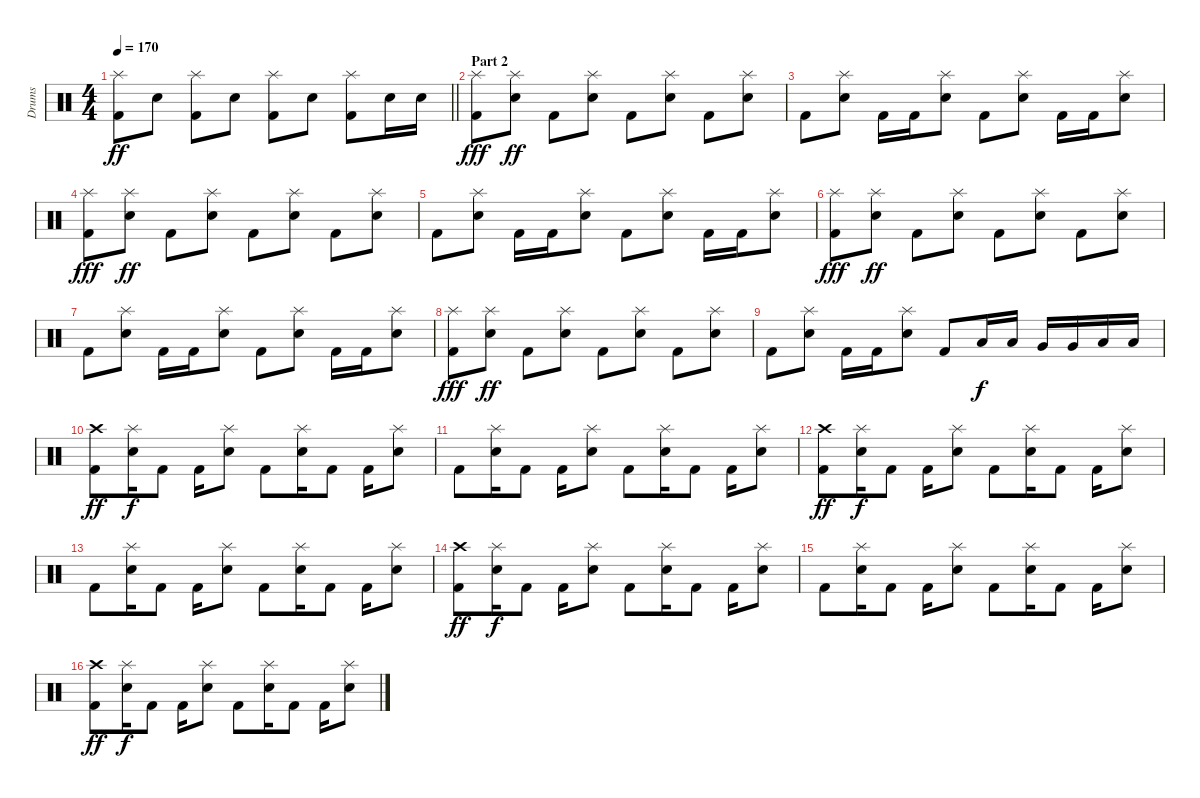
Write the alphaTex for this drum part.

\track ("Drums" "Drums") {instrument percussion}
\staff {score}
\articulation defaults
\ts (4 4)
\tempo 170
\clef neutral
\barLineRight lightlight
\ks c
("Kick (hit) 2" "Splash (hit)").8{dy ff} "Electric Snare (hit)".8 ("Kick (hit) 2" "Splash (hit)").8 "Electric Snare (hit)".8 ("Kick (hit) 2" "Splash (hit)").8 "Electric Snare (hit)".8 ("Kick (hit) 2" "Splash (hit)").8 "Electric Snare (hit)".16 "Electric Snare (hit)".16 |
\section ("" "Part 2")
("Kick (hit) 2" "Splash (hit)").8{dy fff} ("Electric Snare (hit)" "Splash (hit)").8{dy ff} "Kick (hit) 2".8 ("Electric Snare (hit)" "Splash (hit)").8 "Kick (hit) 2".8 ("Electric Snare (hit)" "Splash (hit)").8 "Kick (hit) 2".8 ("Electric Snare (hit)" "Splash (hit)").8 |
"Kick (hit) 2".8 ("Electric Snare (hit)" "Splash (hit)").8 "Kick (hit) 2".16 "Kick (hit) 2".16 ("Electric Snare (hit)" "Splash (hit)").8 "Kick (hit) 2".8 ("Electric Snare (hit)" "Splash (hit)").8 "Kick (hit) 2".16 "Kick (hit) 2".16 ("Electric Snare (hit)" "Splash (hit)").8 |
("Kick (hit) 2" "Splash (hit)").8{dy fff} ("Electric Snare (hit)" "Splash (hit)").8{dy ff} "Kick (hit) 2".8 ("Electric Snare (hit)" "Splash (hit)").8 "Kick (hit) 2".8 ("Electric Snare (hit)" "Splash (hit)").8 "Kick (hit) 2".8 ("Electric Snare (hit)" "Splash (hit)").8 |
"Kick (hit) 2".8 ("Electric Snare (hit)" "Splash (hit)").8 "Kick (hit) 2".16 "Kick (hit) 2".16 ("Electric Snare (hit)" "Splash (hit)").8 "Kick (hit) 2".8 ("Electric Snare (hit)" "Splash (hit)").8 "Kick (hit) 2".16 "Kick (hit) 2".16 ("Electric Snare (hit)" "Splash (hit)").8 |
("Kick (hit) 2" "Splash (hit)").8{dy fff} ("Electric Snare (hit)" "Splash (hit)").8{dy ff} "Kick (hit) 2".8 ("Electric Snare (hit)" "Splash (hit)").8 "Kick (hit) 2".8 ("Electric Snare (hit)" "Splash (hit)").8 "Kick (hit) 2".8 ("Electric Snare (hit)" "Splash (hit)").8 |
"Kick (hit) 2".8 ("Electric Snare (hit)" "Splash (hit)").8 "Kick (hit) 2".16 "Kick (hit) 2".16 ("Electric Snare (hit)" "Splash (hit)").8 "Kick (hit) 2".8 ("Electric Snare (hit)" "Splash (hit)").8 "Kick (hit) 2".16 "Kick (hit) 2".16 ("Electric Snare (hit)" "Splash (hit)").8 |
("Kick (hit) 2" "Splash (hit)").8{dy fff} ("Electric Snare (hit)" "Splash (hit)").8{dy ff} "Kick (hit) 2".8 ("Electric Snare (hit)" "Splash (hit)").8 "Kick (hit) 2".8 ("Electric Snare (hit)" "Splash (hit)").8 "Kick (hit) 2".8 ("Electric Snare (hit)" "Splash (hit)").8 |
"Kick (hit) 2".8 ("Electric Snare (hit)" "Splash (hit)").8 "Kick (hit) 2".16 "Kick (hit) 2".16 ("Electric Snare (hit)" "Splash (hit)").8 "Kick (hit) 2".8 "Low Tom (hit)".16{dy f} "Low Tom (hit)".16 "Very Low Tom (hit)".16 "Very Low Tom (hit)".16 "Low Floor Tom (hit)".16 "Low Floor Tom (hit)".16 |
("Kick (hit) 2" "Crash high (hit)").8{dy ff} ("Electric Snare (hit)" "Splash (hit)").16{dy f} "Kick (hit) 2".8 "Kick (hit) 2".16 ("Electric Snare (hit)" "Splash (hit)").8 "Kick (hit) 2".8 ("Electric Snare (hit)" "Splash (hit)").16 "Kick (hit) 2".8 "Kick (hit) 2".16 ("Electric Snare (hit)" "Splash (hit)").8 |
"Kick (hit) 2".8 ("Electric Snare (hit)" "Splash (hit)").16 "Kick (hit) 2".8 "Kick (hit) 2".16 ("Electric Snare (hit)" "Splash (hit)").8 "Kick (hit) 2".8 ("Electric Snare (hit)" "Splash (hit)").16 "Kick (hit) 2".8 "Kick (hit) 2".16 ("Electric Snare (hit)" "Splash (hit)").8 |
("Kick (hit) 2" "Crash high (hit)").8{dy ff} ("Electric Snare (hit)" "Splash (hit)").16{dy f} "Kick (hit) 2".8 "Kick (hit) 2".16 ("Electric Snare (hit)" "Splash (hit)").8 "Kick (hit) 2".8 ("Electric Snare (hit)" "Splash (hit)").16 "Kick (hit) 2".8 "Kick (hit) 2".16 ("Electric Snare (hit)" "Splash (hit)").8 |
"Kick (hit) 2".8 ("Electric Snare (hit)" "Splash (hit)").16 "Kick (hit) 2".8 "Kick (hit) 2".16 ("Electric Snare (hit)" "Splash (hit)").8 "Kick (hit) 2".8 ("Electric Snare (hit)" "Splash (hit)").16 "Kick (hit) 2".8 "Kick (hit) 2".16 ("Electric Snare (hit)" "Splash (hit)").8 |
("Kick (hit) 2" "Crash high (hit)").8{dy ff} ("Electric Snare (hit)" "Splash (hit)").16{dy f} "Kick (hit) 2".8 "Kick (hit) 2".16 ("Electric Snare (hit)" "Splash (hit)").8 "Kick (hit) 2".8 ("Electric Snare (hit)" "Splash (hit)").16 "Kick (hit) 2".8 "Kick (hit) 2".16 ("Electric Snare (hit)" "Splash (hit)").8 |
"Kick (hit) 2".8 ("Electric Snare (hit)" "Splash (hit)").16 "Kick (hit) 2".8 "Kick (hit) 2".16 ("Electric Snare (hit)" "Splash (hit)").8 "Kick (hit) 2".8 ("Electric Snare (hit)" "Splash (hit)").16 "Kick (hit) 2".8 "Kick (hit) 2".16 ("Electric Snare (hit)" "Splash (hit)").8 |
("Kick (hit) 2" "Crash high (hit)").8{dy ff} ("Electric Snare (hit)" "Splash (hit)").16{dy f} "Kick (hit) 2".8 "Kick (hit) 2".16 ("Electric Snare (hit)" "Splash (hit)").8 "Kick (hit) 2".8 ("Electric Snare (hit)" "Splash (hit)").16 "Kick (hit) 2".8 "Kick (hit) 2".16 ("Electric Snare (hit)" "Splash (hit)").8
